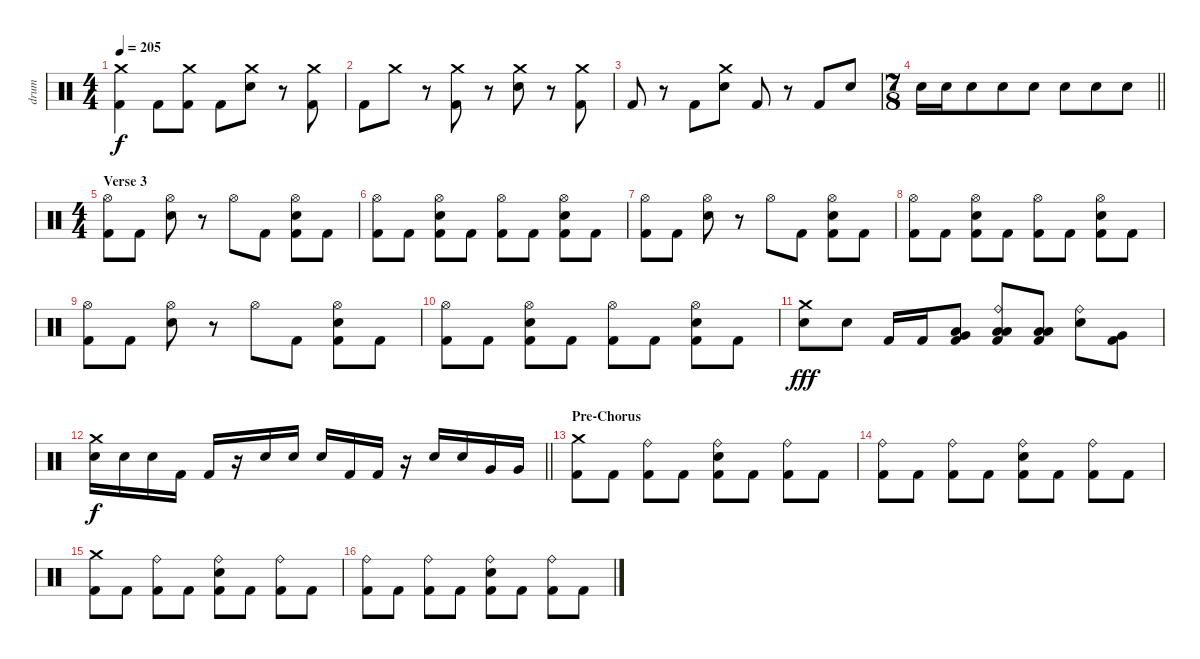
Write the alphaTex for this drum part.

\track ("drum" "drum") {instrument percussion}
\staff {score}
\articulation defaults
\ts (4 4)
\tempo 205
\clef neutral
\ks c
("Crash medium (hit)" "Kick (hit) 2").4{dy f} "Kick (hit) 2".8 ("Crash medium (hit)" "Kick (hit) 2").8 "Kick (hit) 2".8 ("Crash medium (hit)" "Electric Snare (hit)").8 r.8 ("Crash medium (hit)" "Kick (hit) 2").8 |
"Kick (hit) 2".8 "Crash medium (hit)".8 r.8 ("Crash medium (hit)" "Kick (hit) 2").8 r.8 ("Crash medium (hit)" "Electric Snare (hit)").8 r.8 ("Crash medium (hit)" "Kick (hit) 2").8 |
"Kick (hit) 2".8 r.8 "Kick (hit) 2".8 ("Crash medium (hit)" "Electric Snare (hit)").8 "Kick (hit) 2".8 r.8 "Kick (hit) 2".8 "Electric Snare (hit)".8 |
\ts (7 8)
\barLineRight lightlight "Electric Snare (hit)".16 "Electric Snare (hit)".16 "Electric Snare (hit)".8 "Electric Snare (hit)".8 "Electric Snare (hit)".8 "Electric Snare (hit)".8 "Electric Snare (hit)".8 "Electric Snare (hit)".8
|
\ts (4 4)
\section ("" "Verse 3")
("Hi-Hat (open)" "Kick (hit) 2").8 "Kick (hit) 2".8 ("Hi-Hat (open)" "Electric Snare (hit)").8 r.8 "Hi-Hat (open)".8 "Kick (hit) 2".8 ("Hi-Hat (open)" "Electric Snare (hit)" "Kick (hit) 2").8 "Kick (hit) 2".8 |
("Hi-Hat (open)" "Kick (hit) 2").8 "Kick (hit) 2".8 ("Hi-Hat (open)" "Electric Snare (hit)" "Kick (hit) 2").8 "Kick (hit) 2".8 ("Hi-Hat (open)" "Kick (hit) 2").8 "Kick (hit) 2".8 ("Hi-Hat (open)" "Electric Snare (hit)" "Kick (hit) 2").8 "Kick (hit) 2".8 |
("Hi-Hat (open)" "Kick (hit) 2").8 "Kick (hit) 2".8 ("Hi-Hat (open)" "Electric Snare (hit)").8 r.8 "Hi-Hat (open)".8 "Kick (hit) 2".8 ("Hi-Hat (open)" "Electric Snare (hit)" "Kick (hit) 2").8 "Kick (hit) 2".8 |
("Hi-Hat (open)" "Kick (hit) 2").8 "Kick (hit) 2".8 ("Hi-Hat (open)" "Electric Snare (hit)" "Kick (hit) 2").8 "Kick (hit) 2".8 ("Hi-Hat (open)" "Kick (hit) 2").8 "Kick (hit) 2".8 ("Hi-Hat (open)" "Electric Snare (hit)" "Kick (hit) 2").8 "Kick (hit) 2".8 |
("Hi-Hat (open)" "Kick (hit) 2").8 "Kick (hit) 2".8 ("Hi-Hat (open)" "Electric Snare (hit)").8 r.8 "Hi-Hat (open)".8 "Kick (hit) 2".8 ("Hi-Hat (open)" "Electric Snare (hit)" "Kick (hit) 2").8 "Kick (hit) 2".8 |
("Hi-Hat (open)" "Kick (hit) 2").8 "Kick (hit) 2".8 ("Hi-Hat (open)" "Electric Snare (hit)" "Kick (hit) 2").8 "Kick (hit) 2".8 ("Hi-Hat (open)" "Kick (hit) 2").8 "Kick (hit) 2".8 ("Hi-Hat (open)" "Electric Snare (hit)" "Kick (hit) 2").8 "Kick (hit) 2".8 |
("Crash medium (hit)" "Electric Snare (hit)").8{dy fff} "Electric Snare (hit)".8 "Kick (hit) 2".16 "Kick (hit) 2".16 ("Very Low Tom (hit)" "Low Floor Tom (hit)" "Kick (hit) 2").8 ("Ride (bell)" "Low Tom (hit)" "Low Floor Tom (hit)" "Kick (hit) 2").8 ("Low Floor Tom (hit)" "Low Floor Tom (hit)" "Kick (hit) 2").8 ("Ride (bell)" "Electric Snare (hit)").8 ("Very Low Tom (hit)" "Kick (hit) 2").8 |
\barLineRight lightlight
("Crash medium (hit)" "Electric Snare (hit)").16{dy f} "Electric Snare (hit)".16 "Electric Snare (hit)".16 "Kick (hit) 2".16 "Kick (hit) 2".16 r.16 "Electric Snare (hit)".16 "Electric Snare (hit)".16 "Electric Snare (hit)".16 "Kick (hit) 2".16 "Kick (hit) 2".16 r.16 "Electric Snare (hit)".16 "Electric Snare (hit)".16 "Very Low Tom (hit)".16 "Very Low Tom (hit)".16 |
\section ("" "Pre-Chorus")
("Crash medium (hit)" "Kick (hit) 2").8 "Kick (hit) 2".8 ("Ride (bell)" "Kick (hit) 2").8 "Kick (hit) 2".8 ("Ride (bell)" "Electric Snare (hit)" "Kick (hit) 2").8 "Kick (hit) 2".8 ("Ride (bell)" "Kick (hit) 2").8 "Kick (hit) 2".8 |
("Ride (bell)" "Kick (hit) 2").8 "Kick (hit) 2".8 ("Ride (bell)" "Kick (hit) 2").8 "Kick (hit) 2".8 ("Ride (bell)" "Electric Snare (hit)" "Kick (hit) 2").8 "Kick (hit) 2".8 ("Ride (bell)" "Kick (hit) 2").8 "Kick (hit) 2".8 |
("Crash medium (hit)" "Kick (hit) 2").8 "Kick (hit) 2".8 ("Ride (bell)" "Kick (hit) 2").8 "Kick (hit) 2".8 ("Ride (bell)" "Electric Snare (hit)" "Kick (hit) 2").8 "Kick (hit) 2".8 ("Ride (bell)" "Kick (hit) 2").8 "Kick (hit) 2".8 |
("Ride (bell)" "Kick (hit) 2").8 "Kick (hit) 2".8 ("Ride (bell)" "Kick (hit) 2").8 "Kick (hit) 2".8 ("Ride (bell)" "Electric Snare (hit)" "Kick (hit) 2").8 "Kick (hit) 2".8 ("Ride (bell)" "Kick (hit) 2").8 "Kick (hit) 2".8
